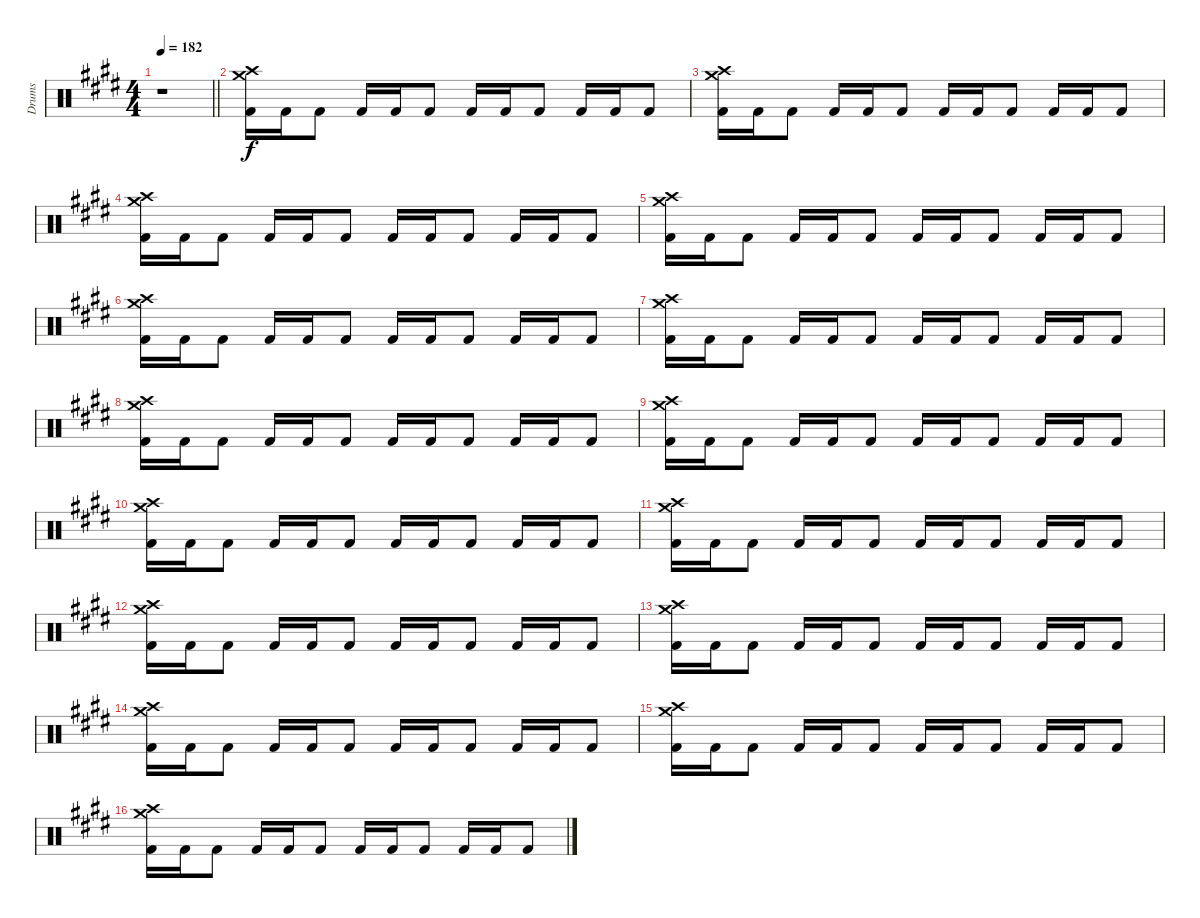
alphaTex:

\track ("Drums" "Drums") {instrument percussion}
\staff {score}
\articulation defaults
\ts (4 4)
\tempo 182
\clef neutral
\barLineRight lightlight
\ks c#minor
r.1{dy fff} |
("Crash high (hit)" "Crash medium (hit)" "Kick (hit) 2").16{dy f} "Kick (hit) 2".16 "Kick (hit) 2".8 "Kick (hit) 2".16 "Kick (hit) 2".16 "Kick (hit) 2".8 "Kick (hit) 2".16 "Kick (hit) 2".16 "Kick (hit) 2".8 "Kick (hit) 2".16 "Kick (hit) 2".16 "Kick (hit) 2".8 |
("Crash high (hit)" "Crash medium (hit)" "Kick (hit) 2").16 "Kick (hit) 2".16 "Kick (hit) 2".8 "Kick (hit) 2".16 "Kick (hit) 2".16 "Kick (hit) 2".8 "Kick (hit) 2".16 "Kick (hit) 2".16 "Kick (hit) 2".8 "Kick (hit) 2".16 "Kick (hit) 2".16 "Kick (hit) 2".8 |
("Crash high (hit)" "Crash medium (hit)" "Kick (hit) 2").16 "Kick (hit) 2".16 "Kick (hit) 2".8 "Kick (hit) 2".16 "Kick (hit) 2".16 "Kick (hit) 2".8 "Kick (hit) 2".16 "Kick (hit) 2".16 "Kick (hit) 2".8 "Kick (hit) 2".16 "Kick (hit) 2".16 "Kick (hit) 2".8 |
("Crash high (hit)" "Crash medium (hit)" "Kick (hit) 2").16 "Kick (hit) 2".16 "Kick (hit) 2".8 "Kick (hit) 2".16 "Kick (hit) 2".16 "Kick (hit) 2".8 "Kick (hit) 2".16 "Kick (hit) 2".16 "Kick (hit) 2".8 "Kick (hit) 2".16 "Kick (hit) 2".16 "Kick (hit) 2".8 |
("Crash high (hit)" "Crash medium (hit)" "Kick (hit) 2").16 "Kick (hit) 2".16 "Kick (hit) 2".8 "Kick (hit) 2".16 "Kick (hit) 2".16 "Kick (hit) 2".8 "Kick (hit) 2".16 "Kick (hit) 2".16 "Kick (hit) 2".8 "Kick (hit) 2".16 "Kick (hit) 2".16 "Kick (hit) 2".8 |
("Crash high (hit)" "Crash medium (hit)" "Kick (hit) 2").16 "Kick (hit) 2".16 "Kick (hit) 2".8 "Kick (hit) 2".16 "Kick (hit) 2".16 "Kick (hit) 2".8 "Kick (hit) 2".16 "Kick (hit) 2".16 "Kick (hit) 2".8 "Kick (hit) 2".16 "Kick (hit) 2".16 "Kick (hit) 2".8 |
("Crash high (hit)" "Crash medium (hit)" "Kick (hit) 2").16 "Kick (hit) 2".16 "Kick (hit) 2".8 "Kick (hit) 2".16 "Kick (hit) 2".16 "Kick (hit) 2".8 "Kick (hit) 2".16 "Kick (hit) 2".16 "Kick (hit) 2".8 "Kick (hit) 2".16 "Kick (hit) 2".16 "Kick (hit) 2".8 |
("Crash high (hit)" "Crash medium (hit)" "Kick (hit) 2").16 "Kick (hit) 2".16 "Kick (hit) 2".8 "Kick (hit) 2".16 "Kick (hit) 2".16 "Kick (hit) 2".8 "Kick (hit) 2".16 "Kick (hit) 2".16 "Kick (hit) 2".8 "Kick (hit) 2".16 "Kick (hit) 2".16 "Kick (hit) 2".8 |
("Crash high (hit)" "Crash medium (hit)" "Kick (hit) 2").16 "Kick (hit) 2".16 "Kick (hit) 2".8 "Kick (hit) 2".16 "Kick (hit) 2".16 "Kick (hit) 2".8 "Kick (hit) 2".16 "Kick (hit) 2".16 "Kick (hit) 2".8 "Kick (hit) 2".16 "Kick (hit) 2".16 "Kick (hit) 2".8 |
("Crash high (hit)" "Crash medium (hit)" "Kick (hit) 2").16 "Kick (hit) 2".16 "Kick (hit) 2".8 "Kick (hit) 2".16 "Kick (hit) 2".16 "Kick (hit) 2".8 "Kick (hit) 2".16 "Kick (hit) 2".16 "Kick (hit) 2".8 "Kick (hit) 2".16 "Kick (hit) 2".16 "Kick (hit) 2".8 |
("Crash high (hit)" "Crash medium (hit)" "Kick (hit) 2").16 "Kick (hit) 2".16 "Kick (hit) 2".8 "Kick (hit) 2".16 "Kick (hit) 2".16 "Kick (hit) 2".8 "Kick (hit) 2".16 "Kick (hit) 2".16 "Kick (hit) 2".8 "Kick (hit) 2".16 "Kick (hit) 2".16 "Kick (hit) 2".8 |
("Crash high (hit)" "Crash medium (hit)" "Kick (hit) 2").16 "Kick (hit) 2".16 "Kick (hit) 2".8 "Kick (hit) 2".16 "Kick (hit) 2".16 "Kick (hit) 2".8 "Kick (hit) 2".16 "Kick (hit) 2".16 "Kick (hit) 2".8 "Kick (hit) 2".16 "Kick (hit) 2".16 "Kick (hit) 2".8 |
("Crash high (hit)" "Crash medium (hit)" "Kick (hit) 2").16 "Kick (hit) 2".16 "Kick (hit) 2".8 "Kick (hit) 2".16 "Kick (hit) 2".16 "Kick (hit) 2".8 "Kick (hit) 2".16 "Kick (hit) 2".16 "Kick (hit) 2".8 "Kick (hit) 2".16 "Kick (hit) 2".16 "Kick (hit) 2".8 |
("Crash high (hit)" "Crash medium (hit)" "Kick (hit) 2").16 "Kick (hit) 2".16 "Kick (hit) 2".8 "Kick (hit) 2".16 "Kick (hit) 2".16 "Kick (hit) 2".8 "Kick (hit) 2".16 "Kick (hit) 2".16 "Kick (hit) 2".8 "Kick (hit) 2".16 "Kick (hit) 2".16 "Kick (hit) 2".8 |
("Crash high (hit)" "Crash medium (hit)" "Kick (hit) 2").16 "Kick (hit) 2".16 "Kick (hit) 2".8 "Kick (hit) 2".16 "Kick (hit) 2".16 "Kick (hit) 2".8 "Kick (hit) 2".16 "Kick (hit) 2".16 "Kick (hit) 2".8 "Kick (hit) 2".16 "Kick (hit) 2".16 "Kick (hit) 2".8
